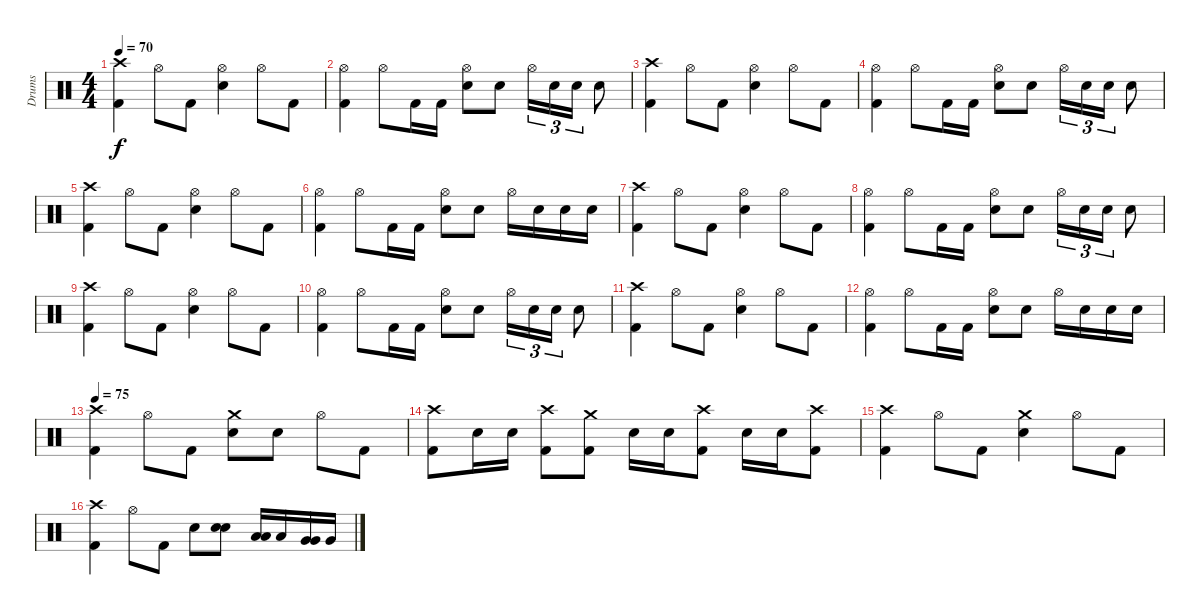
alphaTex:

\track ("Drums" "Drums") {instrument percussion}
\staff {score}
\articulation defaults
\ts (4 4)
\tempo 70
\clef neutral
\ks c
("Crash high (hit)" "Kick (hit) 2").4{dy f} "Hi-Hat (open)".8 "Kick (hit) 2".8 ("Hi-Hat (open)" "Electric Snare (hit)").4 "Hi-Hat (open)".8 "Kick (hit) 2".8 |
("Hi-Hat (open)" "Kick (hit) 2").4 "Hi-Hat (open)".8 "Kick (hit) 2".16 "Kick (hit) 2".16 ("Hi-Hat (open)" "Electric Snare (hit)").8 "Electric Snare (hit)".8 "Hi-Hat (open)".16{tu (3 2)} "Electric Snare (hit)".16{tu (3 2)} "Electric Snare (hit)".16{tu (3 2)} "Electric Snare (hit)".8 |
("Crash high (hit)" "Kick (hit) 2").4 "Hi-Hat (open)".8 "Kick (hit) 2".8 ("Hi-Hat (open)" "Electric Snare (hit)").4 "Hi-Hat (open)".8 "Kick (hit) 2".8 |
("Hi-Hat (open)" "Kick (hit) 2").4 "Hi-Hat (open)".8 "Kick (hit) 2".16 "Kick (hit) 2".16 ("Hi-Hat (open)" "Electric Snare (hit)").8 "Electric Snare (hit)".8 "Hi-Hat (open)".16{tu (3 2)} "Electric Snare (hit)".16{tu (3 2)} "Electric Snare (hit)".16{tu (3 2)} "Electric Snare (hit)".8 |
("Crash high (hit)" "Kick (hit) 2").4 "Hi-Hat (open)".8 "Kick (hit) 2".8 ("Hi-Hat (open)" "Electric Snare (hit)").4 "Hi-Hat (open)".8 "Kick (hit) 2".8 |
("Hi-Hat (open)" "Kick (hit) 2").4 "Hi-Hat (open)".8 "Kick (hit) 2".16 "Kick (hit) 2".16 ("Hi-Hat (open)" "Electric Snare (hit)").8 "Electric Snare (hit)".8 "Hi-Hat (open)".16 "Electric Snare (hit)".16 "Electric Snare (hit)".16 "Electric Snare (hit)".16 |
("Crash high (hit)" "Kick (hit) 2").4 "Hi-Hat (open)".8 "Kick (hit) 2".8 ("Hi-Hat (open)" "Electric Snare (hit)").4 "Hi-Hat (open)".8 "Kick (hit) 2".8 |
("Hi-Hat (open)" "Kick (hit) 2").4 "Hi-Hat (open)".8 "Kick (hit) 2".16 "Kick (hit) 2".16 ("Hi-Hat (open)" "Electric Snare (hit)").8 "Electric Snare (hit)".8 "Hi-Hat (open)".16{tu (3 2)} "Electric Snare (hit)".16{tu (3 2)} "Electric Snare (hit)".16{tu (3 2)} "Electric Snare (hit)".8 |
("Crash high (hit)" "Kick (hit) 2").4 "Hi-Hat (open)".8 "Kick (hit) 2".8 ("Hi-Hat (open)" "Electric Snare (hit)").4 "Hi-Hat (open)".8 "Kick (hit) 2".8 |
("Hi-Hat (open)" "Kick (hit) 2").4 "Hi-Hat (open)".8 "Kick (hit) 2".16 "Kick (hit) 2".16 ("Hi-Hat (open)" "Electric Snare (hit)").8 "Electric Snare (hit)".8 "Hi-Hat (open)".16{tu (3 2)} "Electric Snare (hit)".16{tu (3 2)} "Electric Snare (hit)".16{tu (3 2)} "Electric Snare (hit)".8 |
("Crash high (hit)" "Kick (hit) 2").4 "Hi-Hat (open)".8 "Kick (hit) 2".8 ("Hi-Hat (open)" "Electric Snare (hit)").4 "Hi-Hat (open)".8 "Kick (hit) 2".8 |
("Hi-Hat (open)" "Kick (hit) 2").4 "Hi-Hat (open)".8 "Kick (hit) 2".16 "Kick (hit) 2".16 ("Hi-Hat (open)" "Electric Snare (hit)").8 "Electric Snare (hit)".8 "Hi-Hat (open)".16 "Electric Snare (hit)".16 "Electric Snare (hit)".16 "Electric Snare (hit)".16 |
\tempo 75
("Crash high (hit)" "Kick (hit) 2").4 "Hi-Hat (open)".8 "Kick (hit) 2".8 ("Crash medium (hit)" "Electric Snare (hit)").8 "Electric Snare (hit)".8 "Hi-Hat (open)".8 "Kick (hit) 2".8 |
("Crash high (hit)" "Kick (hit) 2").8 "Electric Snare (hit)".16 "Electric Snare (hit)".16 ("Crash high (hit)" "Kick (hit) 2").8 ("Crash medium (hit)" "Kick (hit) 2").8 "Electric Snare (hit)".16 "Electric Snare (hit)".16 ("Crash high (hit)" "Kick (hit) 2").8 "Electric Snare (hit)".16 "Electric Snare (hit)".16 ("Crash high (hit)" "Kick (hit) 2").8 |
("Crash high (hit)" "Kick (hit) 2").4 "Hi-Hat (open)".8 "Kick (hit) 2".8 ("Crash medium (hit)" "Electric Snare (hit)").4 "Hi-Hat (open)".8 "Kick (hit) 2".8 |
("Crash high (hit)" "Kick (hit) 2").4 "Hi-Hat (open)".8 "Kick (hit) 2".8 "Electric Snare (hit)".8 ("Electric Snare (hit)" "Electric Snare (hit)").8{bu 60} ("Low Tom (hit)" "Low Tom (hit)").16{bu 60} "Low Tom (hit)".16 ("Very Low Tom (hit)" "Very Low Tom (hit)").16{bu 60} "Very Low Tom (hit)".16
